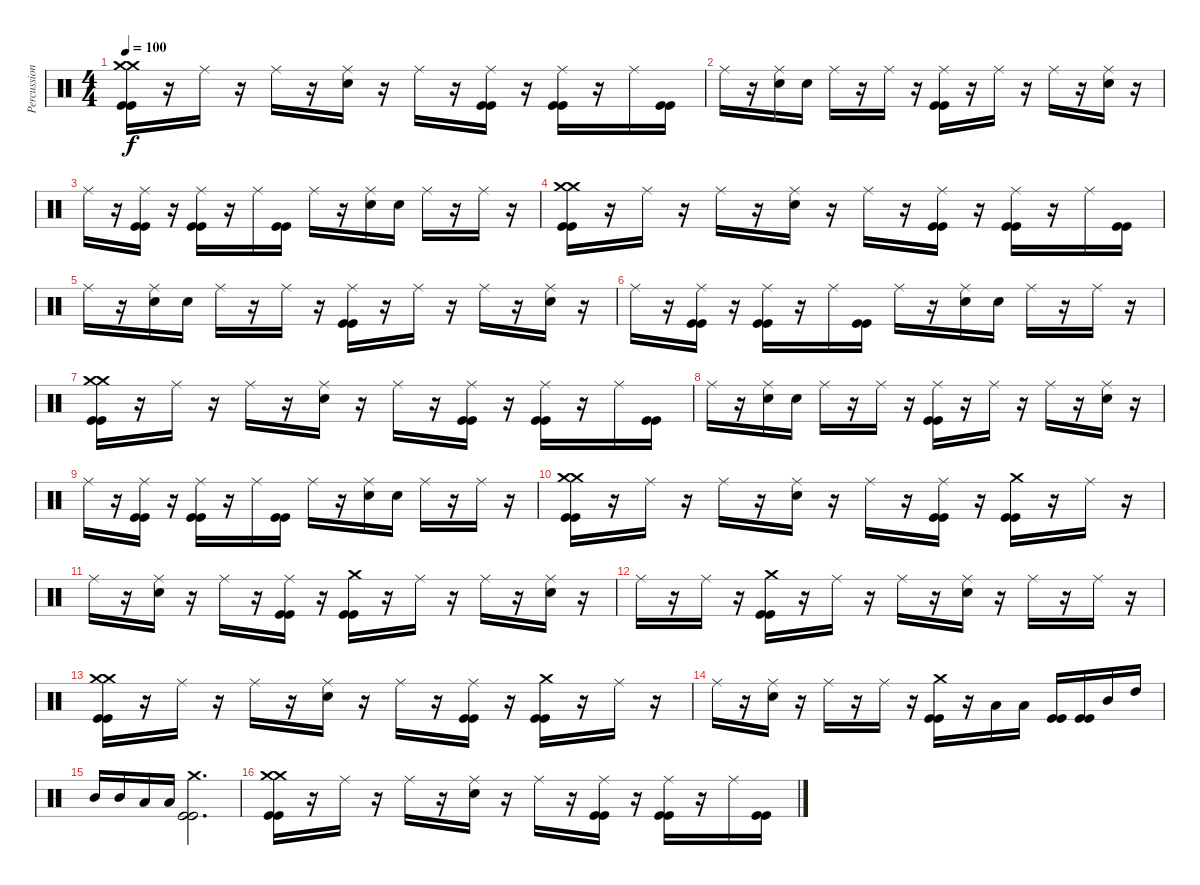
\track ("Percussion" "Percussion") {instrument percussion}
\staff {score}
\articulation defaults
\ts (4 4)
\tempo 100
\clef neutral
\ks c
("Crash medium (hit)" "Crash medium (hit)" "Kick (hit)" "Kick (hit)").16{dy f} r.16 "Ride (middle)".16 r.16 "Ride (middle)".16 r.16 ("Ride (middle)" "Snare (hit) 2").16 r.16 "Ride (middle)".16 r.16 ("Ride (middle)" "Kick (hit)" "Kick (hit)").16 r.16 ("Ride (middle)" "Kick (hit)" "Kick (hit)").16 r.16 "Ride (middle)".16 ("Kick (hit)" "Kick (hit)").16 |
"Ride (middle)".16 r.16 ("Ride (middle)" "Snare (hit) 2").16 "Snare (hit) 2".16 "Ride (middle)".16 r.16 "Ride (middle)".16 r.16 ("Ride (middle)" "Kick (hit)" "Kick (hit)").16 r.16 "Ride (middle)".16 r.16 "Ride (middle)".16 r.16 ("Ride (middle)" "Snare (hit) 2").16 r.16 |
"Ride (middle)".16 r.16 ("Ride (middle)" "Kick (hit)" "Kick (hit)").16 r.16 ("Ride (middle)" "Kick (hit)" "Kick (hit)").16 r.16 "Ride (middle)".16 ("Kick (hit)" "Kick (hit)").16 "Ride (middle)".16 r.16 ("Ride (middle)" "Snare (hit) 2").16 "Snare (hit) 2".16 "Ride (middle)".16 r.16 "Ride (middle)".16 r.16 |
("Crash medium (hit)" "Crash medium (hit)" "Kick (hit)" "Kick (hit)").16 r.16 "Ride (middle)".16 r.16 "Ride (middle)".16 r.16 ("Ride (middle)" "Snare (hit) 2").16 r.16 "Ride (middle)".16 r.16 ("Ride (middle)" "Kick (hit)" "Kick (hit)").16 r.16 ("Ride (middle)" "Kick (hit)" "Kick (hit)").16 r.16 "Ride (middle)".16 ("Kick (hit)" "Kick (hit)").16 |
"Ride (middle)".16 r.16 ("Ride (middle)" "Snare (hit) 2").16 "Snare (hit) 2".16 "Ride (middle)".16 r.16 "Ride (middle)".16 r.16 ("Ride (middle)" "Kick (hit)" "Kick (hit)").16 r.16 "Ride (middle)".16 r.16 "Ride (middle)".16 r.16 ("Ride (middle)" "Snare (hit) 2").16 r.16 |
"Ride (middle)".16 r.16 ("Ride (middle)" "Kick (hit)" "Kick (hit)").16 r.16 ("Ride (middle)" "Kick (hit)" "Kick (hit)").16 r.16 "Ride (middle)".16 ("Kick (hit)" "Kick (hit)").16 "Ride (middle)".16 r.16 ("Ride (middle)" "Snare (hit) 2").16 "Snare (hit) 2".16 "Ride (middle)".16 r.16 "Ride (middle)".16 r.16 |
("Crash medium (hit)" "Crash medium (hit)" "Kick (hit)" "Kick (hit)").16 r.16 "Ride (middle)".16 r.16 "Ride (middle)".16 r.16 ("Ride (middle)" "Snare (hit) 2").16 r.16 "Ride (middle)".16 r.16 ("Ride (middle)" "Kick (hit)" "Kick (hit)").16 r.16 ("Ride (middle)" "Kick (hit)" "Kick (hit)").16 r.16 "Ride (middle)".16 ("Kick (hit)" "Kick (hit)").16 |
"Ride (middle)".16 r.16 ("Ride (middle)" "Snare (hit) 2").16 "Snare (hit) 2".16 "Ride (middle)".16 r.16 "Ride (middle)".16 r.16 ("Ride (middle)" "Kick (hit)" "Kick (hit)").16 r.16 "Ride (middle)".16 r.16 "Ride (middle)".16 r.16 ("Ride (middle)" "Snare (hit) 2").16 r.16 |
"Ride (middle)".16 r.16 ("Ride (middle)" "Kick (hit)" "Kick (hit)").16 r.16 ("Ride (middle)" "Kick (hit)" "Kick (hit)").16 r.16 "Ride (middle)".16 ("Kick (hit)" "Kick (hit)").16 "Ride (middle)".16 r.16 ("Ride (middle)" "Snare (hit) 2").16 "Snare (hit) 2".16 "Ride (middle)".16 r.16 "Ride (middle)".16 r.16 |
("Crash medium (hit)" "Crash medium (hit)" "Kick (hit)" "Kick (hit)").16 r.16 "Ride (middle)".16 r.16 "Ride (middle)".16 r.16 ("Ride (middle)" "Snare (hit) 2").16 r.16 "Ride (middle)".16 r.16 ("Ride (middle)" "Kick (hit)" "Kick (hit)").16 r.16 ("Crash medium (hit)" "Kick (hit)" "Kick (hit)").16 r.16 "Ride (middle)".16 r.16 |
"Ride (middle)".16 r.16 ("Ride (middle)" "Snare (hit) 2").16 r.16 "Ride (middle)".16 r.16 ("Ride (middle)" "Kick (hit)" "Kick (hit)").16 r.16 ("Crash medium (hit)" "Kick (hit)" "Kick (hit)").16 r.16 "Ride (middle)".16 r.16 "Ride (middle)".16 r.16 ("Ride (middle)" "Snare (hit) 2").16 r.16 |
"Ride (middle)".16 r.16 "Ride (middle)".16 r.16 ("Crash medium (hit)" "Kick (hit)" "Kick (hit)").16 r.16 "Ride (middle)".16 r.16 "Ride (middle)".16 r.16 ("Ride (middle)" "Snare (hit) 2").16 r.16 "Ride (middle)".16 r.16 "Ride (middle)".16 r.16 |
("Crash medium (hit)" "Crash medium (hit)" "Kick (hit)" "Kick (hit)").16 r.16 "Ride (middle)".16 r.16 "Ride (middle)".16 r.16 ("Ride (middle)" "Snare (hit) 2").16 r.16 "Ride (middle)".16 r.16 ("Ride (middle)" "Kick (hit)" "Kick (hit)").16 r.16 ("Crash medium (hit)" "Kick (hit)" "Kick (hit)").16 r.16 "Ride (middle)".16 r.16 |
"Ride (middle)".16 r.16 ("Ride (middle)" "Snare (hit) 2").16 r.16 "Ride (middle)".16 r.16 "Ride (middle)".16 r.16 ("Crash medium (hit)" "Kick (hit)" "Kick (hit)").16 r.16 "Low Tom (hit)".16 "Low Tom (hit)".16 ("Kick (hit)" "Kick (hit)").16 ("Kick (hit)" "Kick (hit)").16 "Mid Tom (hit)".16 "High Tom (hit)".16 |
"Mid Tom (hit)".16 "Mid Tom (hit)".16 "Low Tom (hit)".16 "Low Tom (hit)".16 ("Crash medium (hit)" "Kick (hit)" "Kick (hit)").2{d} |
("Crash medium (hit)" "Crash medium (hit)" "Kick (hit)" "Kick (hit)").16 r.16 "Ride (middle)".16 r.16 "Ride (middle)".16 r.16 ("Ride (middle)" "Snare (hit) 2").16 r.16 "Ride (middle)".16 r.16 ("Ride (middle)" "Kick (hit)" "Kick (hit)").16 r.16 ("Ride (middle)" "Kick (hit)" "Kick (hit)").16 r.16 "Ride (middle)".16 ("Kick (hit)" "Kick (hit)").16
